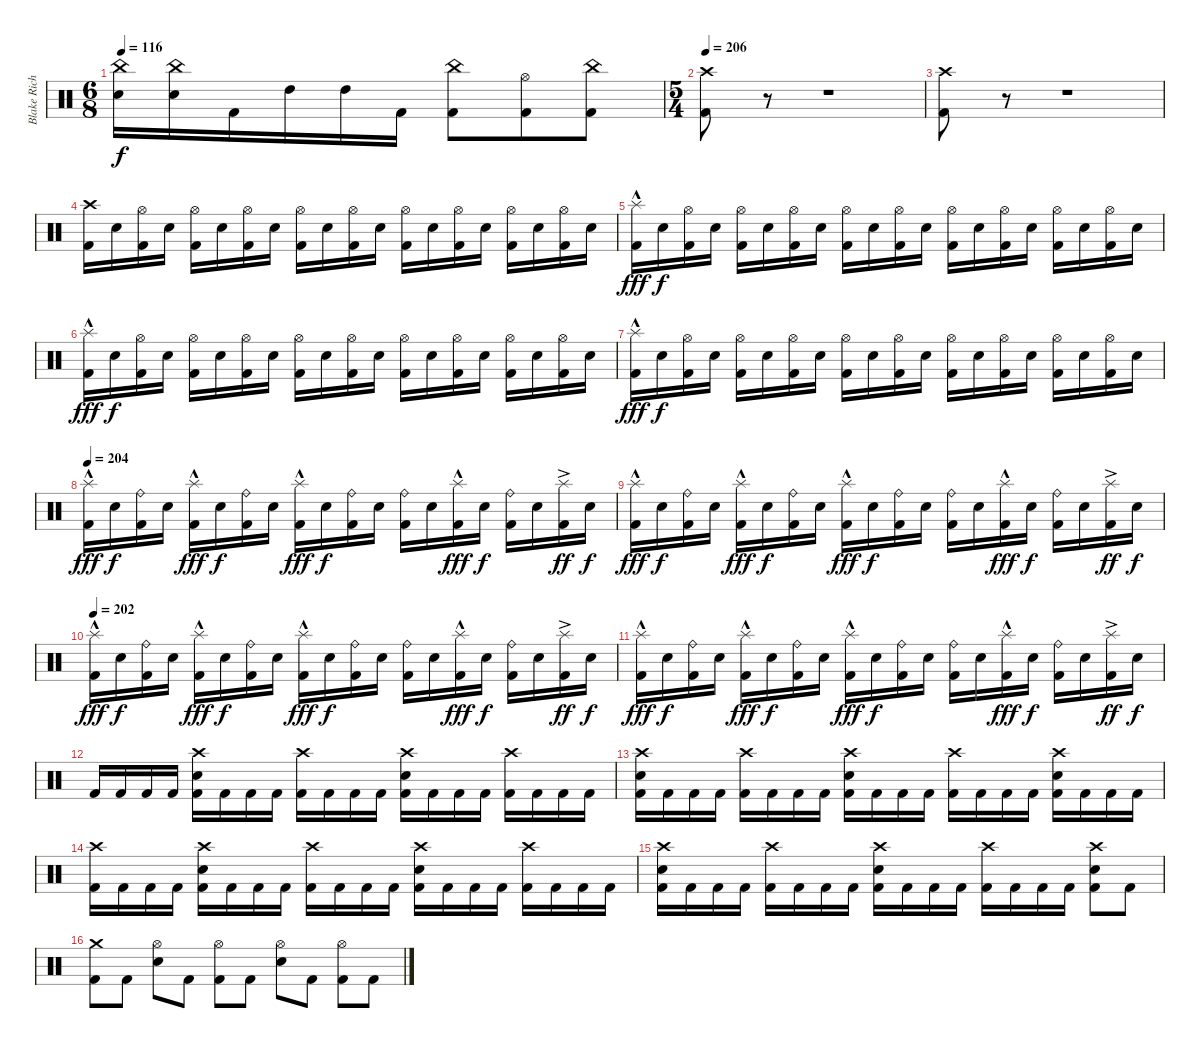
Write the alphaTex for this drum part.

\track ("Blake Richardson" "Blake Rich") {instrument percussion}
\staff {score}
\articulation defaults
\ts (6 8)
\tempo 116
\clef neutral
\ks c
("China (hit)" "Electric Snare (hit)").16{dy f} ("China (hit)" "Electric Snare (hit)").16 "Kick (hit) 2".16 "High Tom (hit)".16 "High Tom (hit)".16 "Kick (hit) 2".16 ("China (hit)" "Kick (hit) 2").8 ("Hi-Hat (open)" "Kick (hit) 2").8 ("China (hit)" "Kick (hit) 2").8 |
\ts (5 4)
\tempo 206
("Crash high (hit)" "Kick (hit) 2").8 r.8{volume 0} r.1 |
("Crash high (hit)" "Kick (hit) 2").8{volume 13} r.8{volume 0} r.1 |
("Crash high (hit)" "Kick (hit) 2").16{volume 13} "Electric Snare (hit)".16 ("Hi-Hat (open)" "Kick (hit) 2").16 "Electric Snare (hit)".16 ("Hi-Hat (open)" "Kick (hit) 2").16 "Electric Snare (hit)".16 ("Hi-Hat (open)" "Kick (hit) 2").16 "Electric Snare (hit)".16 ("Hi-Hat (open)" "Kick (hit) 2").16 "Electric Snare (hit)".16 ("Hi-Hat (open)" "Kick (hit) 2").16 "Electric Snare (hit)".16 ("Hi-Hat (open)" "Kick (hit) 2").16 "Electric Snare (hit)".16 ("Hi-Hat (open)" "Kick (hit) 2").16 "Electric Snare (hit)".16 ("Hi-Hat (open)" "Kick (hit) 2").16 "Electric Snare (hit)".16 ("Hi-Hat (open)" "Kick (hit) 2").16 "Electric Snare (hit)".16 |
("Splash (hit)"{hac} "Kick (hit) 2").16{dy fff} "Electric Snare (hit)".16{dy f} ("Hi-Hat (open)" "Kick (hit) 2").16 "Electric Snare (hit)".16 ("Hi-Hat (open)" "Kick (hit) 2").16 "Electric Snare (hit)".16 ("Hi-Hat (open)" "Kick (hit) 2").16 "Electric Snare (hit)".16 ("Hi-Hat (open)" "Kick (hit) 2").16 "Electric Snare (hit)".16 ("Hi-Hat (open)" "Kick (hit) 2").16 "Electric Snare (hit)".16 ("Hi-Hat (open)" "Kick (hit) 2").16 "Electric Snare (hit)".16 ("Hi-Hat (open)" "Kick (hit) 2").16 "Electric Snare (hit)".16 ("Hi-Hat (open)" "Kick (hit) 2").16 "Electric Snare (hit)".16 ("Hi-Hat (open)" "Kick (hit) 2").16 "Electric Snare (hit)".16 |
("Splash (hit)"{hac} "Kick (hit) 2").16{dy fff} "Electric Snare (hit)".16{dy f} ("Hi-Hat (open)" "Kick (hit) 2").16 "Electric Snare (hit)".16 ("Hi-Hat (open)" "Kick (hit) 2").16 "Electric Snare (hit)".16 ("Hi-Hat (open)" "Kick (hit) 2").16 "Electric Snare (hit)".16 ("Hi-Hat (open)" "Kick (hit) 2").16 "Electric Snare (hit)".16 ("Hi-Hat (open)" "Kick (hit) 2").16 "Electric Snare (hit)".16 ("Hi-Hat (open)" "Kick (hit) 2").16 "Electric Snare (hit)".16 ("Hi-Hat (open)" "Kick (hit) 2").16 "Electric Snare (hit)".16 ("Hi-Hat (open)" "Kick (hit) 2").16 "Electric Snare (hit)".16 ("Hi-Hat (open)" "Kick (hit) 2").16 "Electric Snare (hit)".16 |
("Splash (hit)"{hac} "Kick (hit) 2").16{dy fff} "Electric Snare (hit)".16{dy f} ("Hi-Hat (open)" "Kick (hit) 2").16 "Electric Snare (hit)".16 ("Hi-Hat (open)" "Kick (hit) 2").16 "Electric Snare (hit)".16 ("Hi-Hat (open)" "Kick (hit) 2").16 "Electric Snare (hit)".16 ("Hi-Hat (open)" "Kick (hit) 2").16 "Electric Snare (hit)".16 ("Hi-Hat (open)" "Kick (hit) 2").16 "Electric Snare (hit)".16 ("Hi-Hat (open)" "Kick (hit) 2").16 "Electric Snare (hit)".16 ("Hi-Hat (open)" "Kick (hit) 2").16 "Electric Snare (hit)".16 ("Hi-Hat (open)" "Kick (hit) 2").16 "Electric Snare (hit)".16 ("Hi-Hat (open)" "Kick (hit) 2").16 "Electric Snare (hit)".16 |
\tempo 204
("Splash (hit)"{hac} "Kick (hit) 2").16{dy fff} "Electric Snare (hit)".16{dy f} ("Ride (bell)" "Kick (hit) 2").16 "Electric Snare (hit)".16 ("Splash (hit)"{hac} "Kick (hit) 2").16{dy fff} "Electric Snare (hit)".16{dy f} ("Ride (bell)" "Kick (hit) 2").16 "Electric Snare (hit)".16 ("Splash (hit)"{hac} "Kick (hit) 2").16{dy fff} "Electric Snare (hit)".16{dy f} ("Ride (bell)" "Kick (hit) 2").16 "Electric Snare (hit)".16 ("Ride (bell)" "Kick (hit) 2").16 "Electric Snare (hit)".16 ("Splash (hit)"{hac} "Kick (hit) 2").16{dy fff} "Electric Snare (hit)".16{dy f} ("Ride (bell)" "Kick (hit) 2").16 "Electric Snare (hit)".16 ("Splash (hit)"{ac} "Kick (hit) 2").16{dy ff} "Electric Snare (hit)".16{dy f} |
("Splash (hit)"{hac} "Kick (hit) 2").16{dy fff} "Electric Snare (hit)".16{dy f} ("Ride (bell)" "Kick (hit) 2").16 "Electric Snare (hit)".16 ("Splash (hit)"{hac} "Kick (hit) 2").16{dy fff} "Electric Snare (hit)".16{dy f} ("Ride (bell)" "Kick (hit) 2").16 "Electric Snare (hit)".16 ("Splash (hit)"{hac} "Kick (hit) 2").16{dy fff} "Electric Snare (hit)".16{dy f} ("Ride (bell)" "Kick (hit) 2").16 "Electric Snare (hit)".16 ("Ride (bell)" "Kick (hit) 2").16 "Electric Snare (hit)".16 ("Splash (hit)"{hac} "Kick (hit) 2").16{dy fff} "Electric Snare (hit)".16{dy f} ("Ride (bell)" "Kick (hit) 2").16 "Electric Snare (hit)".16 ("Splash (hit)"{ac} "Kick (hit) 2").16{dy ff} "Electric Snare (hit)".16{dy f} |
\tempo 202
("Splash (hit)"{hac} "Kick (hit) 2").16{dy fff} "Electric Snare (hit)".16{dy f} ("Ride (bell)" "Kick (hit) 2").16 "Electric Snare (hit)".16 ("Splash (hit)"{hac} "Kick (hit) 2").16{dy fff} "Electric Snare (hit)".16{dy f} ("Ride (bell)" "Kick (hit) 2").16 "Electric Snare (hit)".16 ("Splash (hit)"{hac} "Kick (hit) 2").16{dy fff} "Electric Snare (hit)".16{dy f} ("Ride (bell)" "Kick (hit) 2").16 "Electric Snare (hit)".16 ("Ride (bell)" "Kick (hit) 2").16 "Electric Snare (hit)".16 ("Splash (hit)"{hac} "Kick (hit) 2").16{dy fff} "Electric Snare (hit)".16{dy f} ("Ride (bell)" "Kick (hit) 2").16 "Electric Snare (hit)".16 ("Splash (hit)"{ac} "Kick (hit) 2").16{dy ff} "Electric Snare (hit)".16{dy f} |
("Splash (hit)"{hac} "Kick (hit) 2").16{dy fff} "Electric Snare (hit)".16{dy f} ("Ride (bell)" "Kick (hit) 2").16 "Electric Snare (hit)".16 ("Splash (hit)"{hac} "Kick (hit) 2").16{dy fff} "Electric Snare (hit)".16{dy f} ("Ride (bell)" "Kick (hit) 2").16 "Electric Snare (hit)".16 ("Splash (hit)"{hac} "Kick (hit) 2").16{dy fff} "Electric Snare (hit)".16{dy f} ("Ride (bell)" "Kick (hit) 2").16 "Electric Snare (hit)".16 ("Ride (bell)" "Kick (hit) 2").16 "Electric Snare (hit)".16 ("Splash (hit)"{hac} "Kick (hit) 2").16{dy fff} "Electric Snare (hit)".16{dy f} ("Ride (bell)" "Kick (hit) 2").16 "Electric Snare (hit)".16 ("Splash (hit)"{ac} "Kick (hit) 2").16{dy ff} "Electric Snare (hit)".16{dy f} |
"Kick (hit) 2".16 "Kick (hit) 2".16 "Kick (hit) 2".16 "Kick (hit) 2".16 ("Crash high (hit)" "Electric Snare (hit)" "Kick (hit) 2").16 "Kick (hit) 2".16 "Kick (hit) 2".16 "Kick (hit) 2".16 ("Crash high (hit)" "Kick (hit) 2").16 "Kick (hit) 2".16 "Kick (hit) 2".16 "Kick (hit) 2".16 ("Crash high (hit)" "Electric Snare (hit)" "Kick (hit) 2").16 "Kick (hit) 2".16 "Kick (hit) 2".16 "Kick (hit) 2".16 ("Crash high (hit)" "Kick (hit) 2").16 "Kick (hit) 2".16 "Kick (hit) 2".16 "Kick (hit) 2".16 |
("Crash high (hit)" "Electric Snare (hit)" "Kick (hit) 2").16 "Kick (hit) 2".16 "Kick (hit) 2".16 "Kick (hit) 2".16 ("Crash high (hit)" "Kick (hit) 2").16 "Kick (hit) 2".16 "Kick (hit) 2".16 "Kick (hit) 2".16 ("Crash high (hit)" "Electric Snare (hit)" "Kick (hit) 2").16 "Kick (hit) 2".16 "Kick (hit) 2".16 "Kick (hit) 2".16 ("Crash high (hit)" "Kick (hit) 2").16 "Kick (hit) 2".16 "Kick (hit) 2".16 "Kick (hit) 2".16 ("Crash high (hit)" "Electric Snare (hit)" "Kick (hit) 2").16 "Kick (hit) 2".16 "Kick (hit) 2".16 "Kick (hit) 2".16 |
("Crash high (hit)" "Kick (hit) 2").16 "Kick (hit) 2".16 "Kick (hit) 2".16 "Kick (hit) 2".16 ("Crash high (hit)" "Electric Snare (hit)" "Kick (hit) 2").16 "Kick (hit) 2".16 "Kick (hit) 2".16 "Kick (hit) 2".16 ("Crash high (hit)" "Kick (hit) 2").16 "Kick (hit) 2".16 "Kick (hit) 2".16 "Kick (hit) 2".16 ("Crash high (hit)" "Electric Snare (hit)" "Kick (hit) 2").16 "Kick (hit) 2".16 "Kick (hit) 2".16 "Kick (hit) 2".16 ("Crash high (hit)" "Kick (hit) 2").16 "Kick (hit) 2".16 "Kick (hit) 2".16 "Kick (hit) 2".16 |
("Crash high (hit)" "Electric Snare (hit)" "Kick (hit) 2").16 "Kick (hit) 2".16 "Kick (hit) 2".16 "Kick (hit) 2".16 ("Crash high (hit)" "Kick (hit) 2").16 "Kick (hit) 2".16 "Kick (hit) 2".16 "Kick (hit) 2".16 ("Crash high (hit)" "Electric Snare (hit)" "Kick (hit) 2").16 "Kick (hit) 2".16 "Kick (hit) 2".16 "Kick (hit) 2".16 ("Crash high (hit)" "Kick (hit) 2").16 "Kick (hit) 2".16 "Kick (hit) 2".16 "Kick (hit) 2".16 ("Crash high (hit)" "Electric Snare (hit)" "Kick (hit) 2").8 "Kick (hit) 2".8 |
("Crash medium (hit)" "Kick (hit) 2").8 "Kick (hit) 2".8{beam split} ("Hi-Hat (open)" "Electric Snare (hit)").8 "Kick (hit) 2".8{beam split} ("Hi-Hat (open)" "Kick (hit) 2").8 "Kick (hit) 2".8 ("Hi-Hat (open)" "Electric Snare (hit)").8 "Kick (hit) 2".8{beam split} ("Hi-Hat (open)" "Kick (hit) 2").8 "Kick (hit) 2".8
